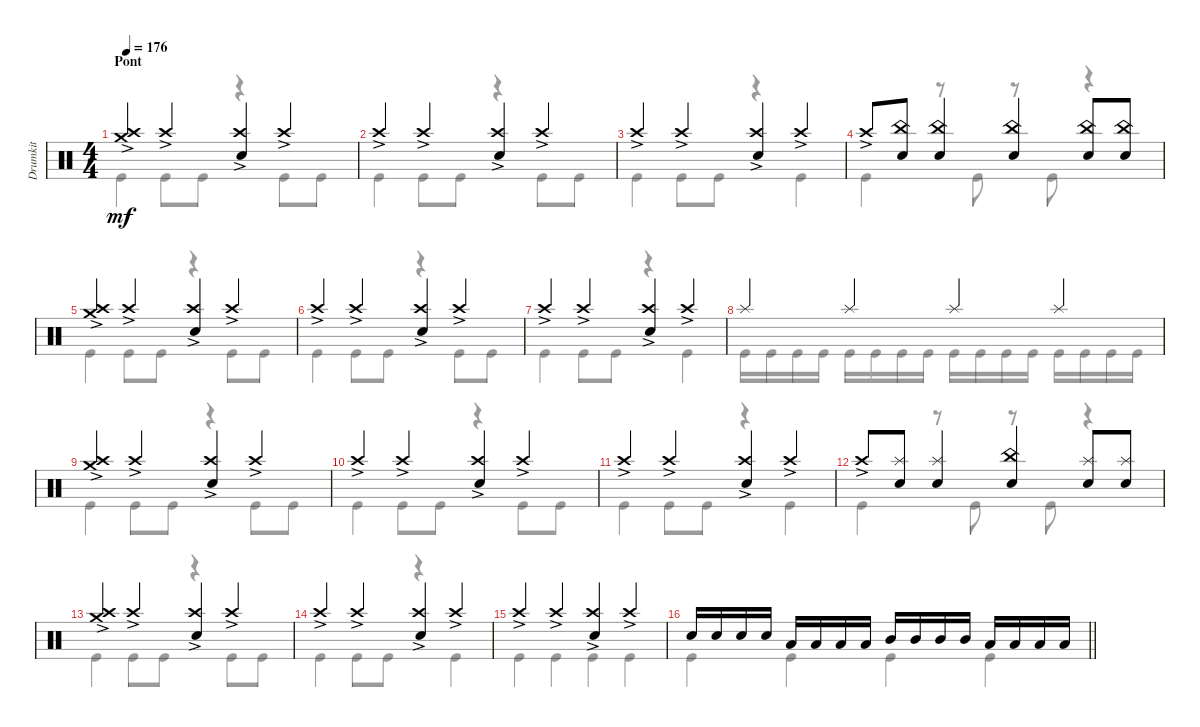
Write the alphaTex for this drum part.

\track ("Drumkit" "Drumkit") {instrument percussion}
\staff {score}
\articulation defaults
\voice
\ts (4 4)
\section ("" "Pont")
\tempo 176
\clef neutral
\ks c
("Crash medium (hit)"{ac} "Crash high (hit)"{ac}).4{dy mf} "Crash high (hit)"{ac}.4 ("Crash high (hit)"{ac} "Snare (hit) 2").4 "Crash high (hit)"{ac}.4 |
"Crash high (hit)"{ac}.4 "Crash high (hit)"{ac}.4 ("Crash high (hit)"{ac} "Snare (hit) 2").4 "Crash high (hit)"{ac}.4 |
"Crash high (hit)"{ac}.4 "Crash high (hit)"{ac}.4 ("Crash high (hit)"{ac} "Snare (hit) 2").4 "Crash high (hit)"{ac}.4 |
"Crash high (hit)"{ac}.8 ("Snare (hit) 2" "China (hit)").8 ("Snare (hit) 2" "China (hit)").4 ("Snare (hit) 2" "China (hit)").4 ("Snare (hit) 2" "China (hit)").8 ("Snare (hit) 2" "China (hit)").8 |
("Crash medium (hit)"{ac} "Crash high (hit)"{ac}).4 "Crash high (hit)"{ac}.4 ("Crash high (hit)"{ac} "Snare (hit) 2").4 "Crash high (hit)"{ac}.4 |
"Crash high (hit)"{ac}.4 "Crash high (hit)"{ac}.4 ("Crash high (hit)"{ac} "Snare (hit) 2").4 "Crash high (hit)"{ac}.4 |
"Crash high (hit)"{ac}.4 "Crash high (hit)"{ac}.4 ("Crash high (hit)"{ac} "Snare (hit) 2").4 "Crash high (hit)"{ac}.4 |
"Splash (hit)".4 "Splash (hit)".4 "Splash (hit)".4 "Splash (hit)".4 |
("Crash medium (hit)"{ac} "Crash high (hit)"{ac}).4 "Crash high (hit)"{ac}.4 ("Crash high (hit)"{ac} "Snare (hit) 2").4 "Crash high (hit)"{ac}.4 |
"Crash high (hit)"{ac}.4 "Crash high (hit)"{ac}.4 ("Crash high (hit)"{ac} "Snare (hit) 2").4 "Crash high (hit)"{ac}.4 |
"Crash high (hit)"{ac}.4 "Crash high (hit)"{ac}.4 ("Crash high (hit)"{ac} "Snare (hit) 2").4 "Crash high (hit)"{ac}.4 |
"Crash high (hit)"{ac}.8 ("Snare (hit) 2" "Splash (hit)").8 ("Snare (hit) 2" "Splash (hit)").4 ("Snare (hit) 2" "China (hit)").4 ("Snare (hit) 2" "Splash (hit)").8 ("Snare (hit) 2" "Splash (hit)").8 |
("Crash medium (hit)"{ac} "Crash high (hit)"{ac}).4 "Crash high (hit)"{ac}.4 ("Crash high (hit)"{ac} "Snare (hit) 2").4 "Crash high (hit)"{ac}.4 |
"Crash high (hit)"{ac}.4 "Crash high (hit)"{ac}.4 ("Crash high (hit)"{ac} "Snare (hit) 2").4 "Crash high (hit)"{ac}.4 |
"Crash high (hit)"{ac}.4 "Crash high (hit)"{ac}.4 ("Crash high (hit)"{ac} "Snare (hit) 2").4 "Crash high (hit)"{ac}.4 |
\barLineRight lightlight "Snare (hit) 2".16 "Snare (hit) 2".16 "Snare (hit) 2".16 "Snare (hit) 2".16 "Low Tom (hit)".16 "Low Tom (hit)".16 "Low Tom (hit)".16 "Low Tom (hit)".16 "Mid Tom (hit)".16 "Mid Tom (hit)".16 "Mid Tom (hit)".16 "Mid Tom (hit)".16 "Low Tom (hit)".16 "Low Tom (hit)".16 "Low Tom (hit)".16 "Low Tom (hit)".16
\voice
\clef neutral
\ottava regular
\simile none
\ks c "Kick (hit)".4{dy mf} "Kick (hit)".8 "Kick (hit)".8
r.4 "Kick (hit)".8 "Kick (hit)".8 |
"Kick (hit)".4 "Kick (hit)".8 "Kick (hit)".8 r.4 "Kick (hit)".8 "Kick (hit)".8 |
"Kick (hit)".4 "Kick (hit)".8 "Kick (hit)".8 r.4 "Kick (hit)".4 |
"Kick (hit)".4 r.8 "Kick (hit)".8 r.8 "Kick (hit)".8 r.4 |
"Kick (hit)".4 "Kick (hit)".8 "Kick (hit)".8 r.4 "Kick (hit)".8 "Kick (hit)".8 |
"Kick (hit)".4 "Kick (hit)".8 "Kick (hit)".8 r.4 "Kick (hit)".8 "Kick (hit)".8 |
"Kick (hit)".4 "Kick (hit)".8 "Kick (hit)".8 r.4 "Kick (hit)".4 |
"Kick (hit)".16 "Kick (hit)".16 "Kick (hit)".16 "Kick (hit)".16 "Kick (hit)".16 "Kick (hit)".16 "Kick (hit)".16 "Kick (hit)".16 "Kick (hit)".16 "Kick (hit)".16 "Kick (hit)".16 "Kick (hit)".16 "Kick (hit)".16 "Kick (hit)".16 "Kick (hit)".16 "Kick (hit)".16 |
"Kick (hit)".4 "Kick (hit)".8 "Kick (hit)".8 r.4 "Kick (hit)".8 "Kick (hit)".8 |
"Kick (hit)".4 "Kick (hit)".8 "Kick (hit)".8 r.4 "Kick (hit)".8 "Kick (hit)".8 |
"Kick (hit)".4 "Kick (hit)".8 "Kick (hit)".8 r.4 "Kick (hit)".4 |
"Kick (hit)".4 r.8 "Kick (hit)".8 r.8 "Kick (hit)".8 r.4 |
"Kick (hit)".4 "Kick (hit)".8 "Kick (hit)".8 r.4 "Kick (hit)".8 "Kick (hit)".8 |
"Kick (hit)".4 "Kick (hit)".8 "Kick (hit)".8 r.4 "Kick (hit)".4 |
"Kick (hit)".4 "Kick (hit)".4 "Kick (hit)".4 "Kick (hit)".4 |
\barLineRight lightlight "Kick (hit)".4 "Kick (hit)".4 "Kick (hit)".4 "Kick (hit)".4
